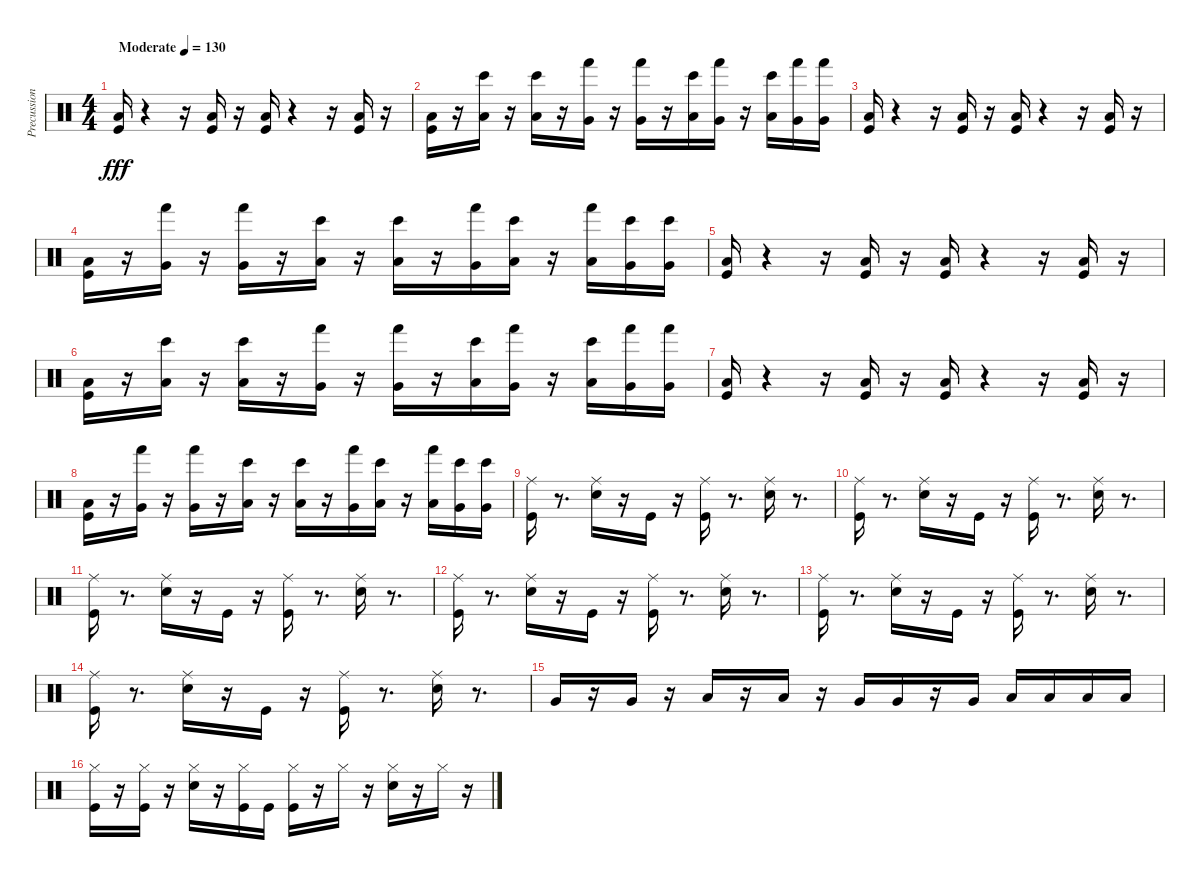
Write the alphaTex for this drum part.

\track ("Precussion" "Precussion") {instrument percussion}
\staff {score}
\articulation defaults
\ts (4 4)
\tempo (130 "Moderate")
\clef neutral
\ks c
("Kick (hit)" "Low Floor Tom (hit)").16{dy fff} r.4 r.16 ("Kick (hit)" "Low Floor Tom (hit)").16 r.16 ("Kick (hit)" "Low Floor Tom (hit)").16 r.4 r.16 ("Kick (hit)" "Low Floor Tom (hit)").16 r.16 |
("Kick (hit)" "Low Floor Tom (hit)").16 r.16 ("Low Floor Tom (hit)" "Bongo High (hit)").16 r.16 ("Low Floor Tom (hit)" "Bongo High (hit)").16 r.16 ("Very Low Tom (hit)" "Hand (hit)").16 r.16 ("Very Low Tom (hit)" "Hand (hit)").16 r.16 ("Low Floor Tom (hit)" "Bongo High (hit)").16 ("Very Low Tom (hit)" "Hand (hit)").16 r.16 ("Low Floor Tom (hit)" "Bongo High (hit)").16 ("Very Low Tom (hit)" "Hand (hit)").16 ("Very Low Tom (hit)" "Hand (hit)").16 |
("Kick (hit)" "Low Floor Tom (hit)").16 r.4 r.16 ("Kick (hit)" "Low Floor Tom (hit)").16 r.16 ("Kick (hit)" "Low Floor Tom (hit)").16 r.4 r.16 ("Kick (hit)" "Low Floor Tom (hit)").16 r.16 |
("Kick (hit)" "Low Floor Tom (hit)").16 r.16 ("Hand (hit)" "Very Low Tom (hit)").16 r.16 ("Hand (hit)" "Very Low Tom (hit)").16 r.16 ("Bongo High (hit)" "Low Floor Tom (hit)").16 r.16 ("Bongo High (hit)" "Low Floor Tom (hit)").16 r.16 ("Hand (hit)" "Very Low Tom (hit)").16 ("Bongo High (hit)" "Low Floor Tom (hit)").16 r.16 ("Hand (hit)" "Low Floor Tom (hit)").16 ("Bongo High (hit)" "Very Low Tom (hit)").16 ("Bongo High (hit)" "Very Low Tom (hit)").16 |
("Kick (hit)" "Low Floor Tom (hit)").16 r.4 r.16 ("Kick (hit)" "Low Floor Tom (hit)").16 r.16 ("Kick (hit)" "Low Floor Tom (hit)").16 r.4 r.16 ("Kick (hit)" "Low Floor Tom (hit)").16 r.16 |
("Kick (hit)" "Low Floor Tom (hit)").16 r.16 ("Low Floor Tom (hit)" "Bongo High (hit)").16 r.16 ("Low Floor Tom (hit)" "Bongo High (hit)").16 r.16 ("Very Low Tom (hit)" "Hand (hit)").16 r.16 ("Very Low Tom (hit)" "Hand (hit)").16 r.16 ("Low Floor Tom (hit)" "Bongo High (hit)").16 ("Very Low Tom (hit)" "Hand (hit)").16 r.16 ("Low Floor Tom (hit)" "Bongo High (hit)").16 ("Very Low Tom (hit)" "Hand (hit)").16 ("Very Low Tom (hit)" "Hand (hit)").16 |
("Kick (hit)" "Low Floor Tom (hit)").16 r.4 r.16 ("Kick (hit)" "Low Floor Tom (hit)").16 r.16 ("Kick (hit)" "Low Floor Tom (hit)").16 r.4 r.16 ("Kick (hit)" "Low Floor Tom (hit)").16 r.16 |
("Kick (hit)" "Low Floor Tom (hit)").16 r.16 ("Hand (hit)" "Very Low Tom (hit)").16 r.16 ("Hand (hit)" "Very Low Tom (hit)").16 r.16 ("Bongo High (hit)" "Low Floor Tom (hit)").16 r.16 ("Bongo High (hit)" "Low Floor Tom (hit)").16 r.16 ("Hand (hit)" "Very Low Tom (hit)").16 ("Bongo High (hit)" "Low Floor Tom (hit)").16 r.16 ("Hand (hit)" "Low Floor Tom (hit)").16 ("Bongo High (hit)" "Very Low Tom (hit)").16 ("Bongo High (hit)" "Very Low Tom (hit)").16 |
("Ride (middle)" "Kick (hit)").16 r.8{d} ("Ride (middle)" "Snare (hit) 2").16 r.16 "Kick (hit)".16 r.16 ("Ride (middle)" "Kick (hit)").16 r.8{d} ("Ride (middle)" "Snare (hit) 2").16 r.8{d} |
("Ride (middle)" "Kick (hit)").16 r.8{d} ("Ride (middle)" "Snare (hit) 2").16 r.16 "Kick (hit)".16 r.16 ("Ride (middle)" "Kick (hit)").16 r.8{d} ("Ride (middle)" "Snare (hit) 2").16 r.8{d} |
("Ride (middle)" "Kick (hit)").16 r.8{d} ("Ride (middle)" "Snare (hit) 2").16 r.16 "Kick (hit)".16 r.16 ("Ride (middle)" "Kick (hit)").16 r.8{d} ("Ride (middle)" "Snare (hit) 2").16 r.8{d} |
("Ride (middle)" "Kick (hit)").16 r.8{d} ("Ride (middle)" "Snare (hit) 2").16 r.16 "Kick (hit)".16 r.16 ("Ride (middle)" "Kick (hit)").16 r.8{d} ("Ride (middle)" "Snare (hit) 2").16 r.8{d} |
("Ride (middle)" "Kick (hit)").16 r.8{d} ("Ride (middle)" "Snare (hit) 2").16 r.16 "Kick (hit)".16 r.16 ("Ride (middle)" "Kick (hit)").16 r.8{d} ("Ride (middle)" "Snare (hit) 2").16 r.8{d} |
("Ride (middle)" "Kick (hit)").16 r.8{d} ("Ride (middle)" "Snare (hit) 2").16 r.16 "Kick (hit)".16 r.16 ("Ride (middle)" "Kick (hit)").16 r.8{d} ("Ride (middle)" "Snare (hit) 2").16 r.8{d} |
"Very Low Tom (hit)".16 r.16 "Very Low Tom (hit)".16 r.16 "Low Floor Tom (hit)".16 r.16 "Low Floor Tom (hit)".16 r.16 "Very Low Tom (hit)".16 "Very Low Tom (hit)".16 r.16 "Very Low Tom (hit)".16 "Low Floor Tom (hit)".16 "Low Floor Tom (hit)".16 "Low Floor Tom (hit)".16 "Low Floor Tom (hit)".16 |
("Kick (hit)" "Hi-Hat (closed)").16 r.16 ("Kick (hit)" "Hi-Hat (closed)").16 r.16 ("Snare (hit) 2" "Hi-Hat (closed)").16 r.16 ("Kick (hit)" "Hi-Hat (closed)").16 "Kick (hit)".16 ("Kick (hit)" "Hi-Hat (closed)").16 r.16 "Hi-Hat (closed)".16 r.16 ("Snare (hit) 2" "Hi-Hat (closed)").16 r.16 "Hi-Hat (closed)".16 r.16
